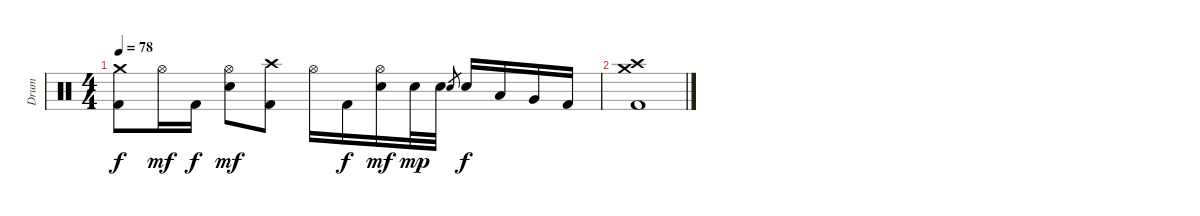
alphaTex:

\track ("Drum" "Drum") {instrument percussion}
\staff {score}
\articulation defaults
\ts (4 4)
\tempo 78
\clef neutral
\ks c
("Crash medium (hit)" "Kick (hit) 2").8{dy f} "Hi-Hat (open)".16{dy mf} "Kick (hit) 2".16{dy f} ("Hi-Hat (open)" "Snare (hit) 2").8{dy mf} ("Crash high (hit)" "Kick (hit) 2").8 "Hi-Hat (open)".16 "Kick (hit) 2".16{dy f} ("Hi-Hat (open)" "Snare (hit) 2").16{dy mf} "Snare (hit) 2".32{dy mp} "Snare (hit) 2".32 "Snare (hit) 2".8{gr} "Snare (hit) 2".16{dy f} "Low Tom (hit)".16 "Very Low Tom (hit)".16 "Kick (hit) 2".16 |
("Crash medium (hit)" "Crash high (hit)" "Kick (hit) 2").1
